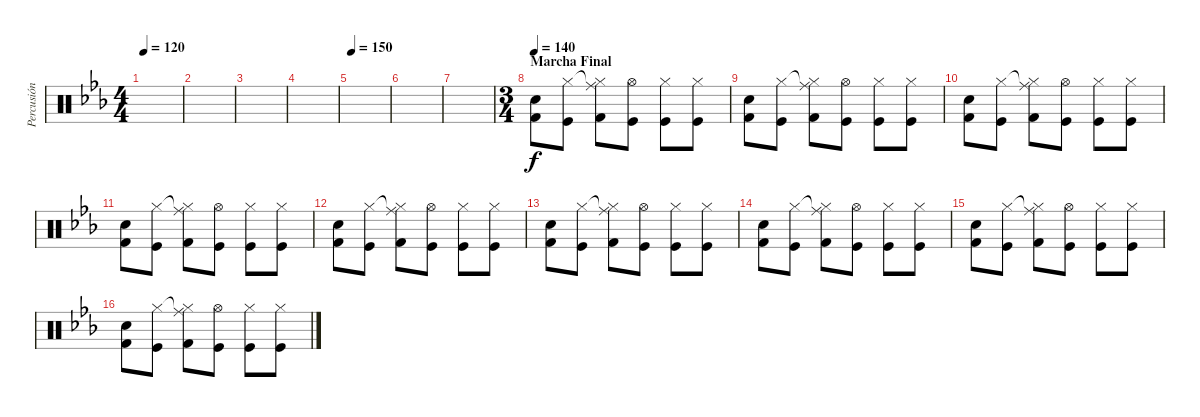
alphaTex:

\track ("Percusión" "Percusión") {instrument percussion}
\staff {score}
\articulation defaults
\ts (4 4)
\tempo 120
\clef neutral
\ks cminor
|
|
|
|
\tempo 150
|
|
|
\ts (3 4)
\section ("" "Marcha Final")
\tempo 140
("Electric Snare (hit)" "Kick (hit) 2").8{volume 5} ("Hi-Hat (closed)" "Kick (hit)").8 ("Ride (middle)"{t} "Hi-Hat (closed)" "Kick (hit) 2").8 ("Hi-Hat (open)" "Kick (hit)").8 ("Hi-Hat (closed)" "Kick (hit)").8 ("Hi-Hat (closed)" "Kick (hit)").8 |
("Electric Snare (hit)" "Kick (hit) 2").8 ("Hi-Hat (closed)" "Kick (hit)").8 ("Ride (middle)"{t} "Hi-Hat (closed)" "Kick (hit) 2").8 ("Hi-Hat (open)" "Kick (hit)").8 ("Hi-Hat (closed)" "Kick (hit)").8 ("Hi-Hat (closed)" "Kick (hit)").8 |
("Electric Snare (hit)" "Kick (hit) 2").8 ("Hi-Hat (closed)" "Kick (hit)").8 ("Ride (middle)"{t} "Hi-Hat (closed)" "Kick (hit) 2").8 ("Hi-Hat (open)" "Kick (hit)").8 ("Hi-Hat (closed)" "Kick (hit)").8 ("Hi-Hat (closed)" "Kick (hit)").8 |
("Electric Snare (hit)" "Kick (hit) 2").8 ("Hi-Hat (closed)" "Kick (hit)").8 ("Ride (middle)"{t} "Hi-Hat (closed)" "Kick (hit) 2").8 ("Hi-Hat (open)" "Kick (hit)").8 ("Hi-Hat (closed)" "Kick (hit)").8 ("Hi-Hat (closed)" "Kick (hit)").8 |
("Electric Snare (hit)" "Kick (hit) 2").8 ("Hi-Hat (closed)" "Kick (hit)").8 ("Ride (middle)"{t} "Hi-Hat (closed)" "Kick (hit) 2").8 ("Hi-Hat (open)" "Kick (hit)").8 ("Hi-Hat (closed)" "Kick (hit)").8 ("Hi-Hat (closed)" "Kick (hit)").8 |
("Electric Snare (hit)" "Kick (hit) 2").8 ("Hi-Hat (closed)" "Kick (hit)").8 ("Ride (middle)"{t} "Hi-Hat (closed)" "Kick (hit) 2").8 ("Hi-Hat (open)" "Kick (hit)").8 ("Hi-Hat (closed)" "Kick (hit)").8 ("Hi-Hat (closed)" "Kick (hit)").8 |
("Electric Snare (hit)" "Kick (hit) 2").8 ("Hi-Hat (closed)" "Kick (hit)").8 ("Ride (middle)"{t} "Hi-Hat (closed)" "Kick (hit) 2").8 ("Hi-Hat (open)" "Kick (hit)").8 ("Hi-Hat (closed)" "Kick (hit)").8 ("Hi-Hat (closed)" "Kick (hit)").8 |
("Electric Snare (hit)" "Kick (hit) 2").8 ("Hi-Hat (closed)" "Kick (hit)").8 ("Ride (middle)"{t} "Hi-Hat (closed)" "Kick (hit) 2").8 ("Hi-Hat (open)" "Kick (hit)").8 ("Hi-Hat (closed)" "Kick (hit)").8 ("Hi-Hat (closed)" "Kick (hit)").8 |
("Electric Snare (hit)" "Kick (hit) 2").8 ("Hi-Hat (closed)" "Kick (hit)").8 ("Ride (middle)"{t} "Hi-Hat (closed)" "Kick (hit) 2").8 ("Hi-Hat (open)" "Kick (hit)").8 ("Hi-Hat (closed)" "Kick (hit)").8 ("Hi-Hat (closed)" "Kick (hit)").8
